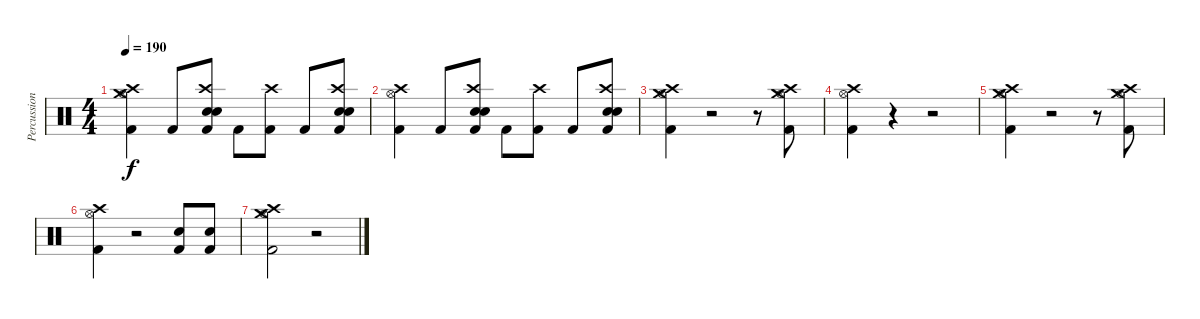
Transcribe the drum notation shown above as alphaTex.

\track ("Percussion" "Percussion") {instrument percussion}
\staff {score}
\articulation defaults
\ts (4 4)
\tempo 190
\clef neutral
\ks c
("Hi-Hat (open)" "Kick (hit) 2" "Crash medium (hit)" "Crash high (hit)").4{dy f} "Kick (hit) 2".8 ("Electric Snare (hit)" "Snare (hit) 2" "Kick (hit) 2" "Crash high (hit)").8 "Kick (hit) 2".8 ("Kick (hit) 2" "Crash high (hit)").8 "Kick (hit) 2".8 ("Electric Snare (hit)" "Snare (hit) 2" "Kick (hit) 2" "Crash high (hit)").8 |
("Hi-Hat (open)" "Kick (hit) 2" "Crash high (hit)").4 "Kick (hit) 2".8 ("Electric Snare (hit)" "Snare (hit) 2" "Kick (hit) 2" "Crash high (hit)").8 "Kick (hit) 2".8 ("Kick (hit) 2" "Crash high (hit)").8 "Kick (hit) 2".8 ("Electric Snare (hit)" "Snare (hit) 2" "Kick (hit) 2" "Crash high (hit)").8 |
("Hi-Hat (open)" "Kick (hit) 2" "Crash medium (hit)" "Crash high (hit)").4 r.2 r.8 ("Hi-Hat (open)" "Kick (hit) 2" "Crash medium (hit)" "Crash high (hit)").8 |
("Hi-Hat (open)" "Kick (hit) 2" "Crash high (hit)").4 r.4 r.2 |
("Hi-Hat (open)" "Kick (hit) 2" "Crash medium (hit)" "Crash high (hit)").4 r.2 r.8 ("Hi-Hat (open)" "Kick (hit) 2" "Crash medium (hit)" "Crash high (hit)").8 |
("Hi-Hat (open)" "Kick (hit) 2" "Crash high (hit)").4 r.2 ("Snare (hit) 2" "Kick (hit) 2").8 ("Snare (hit) 2" "Kick (hit) 2").8 |
("Hi-Hat (open)" "Kick (hit) 2" "Crash medium (hit)" "Crash high (hit)").2 r.2
